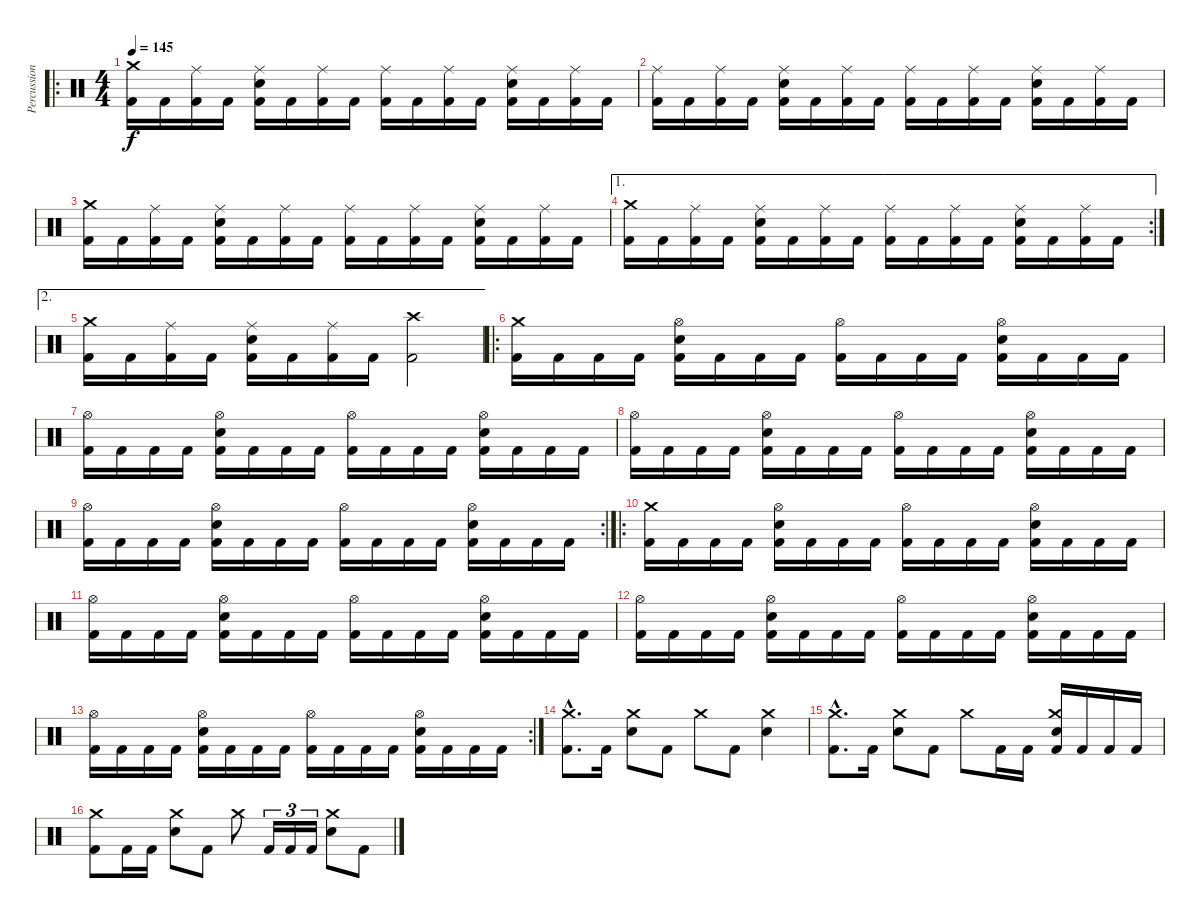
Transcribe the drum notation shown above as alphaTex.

\track ("Percussion" "Percussion") {instrument percussion}
\staff {score}
\articulation defaults
\ro
\ts (4 4)
\tempo 145
\clef neutral
\ks c
("Kick (hit) 2" "Crash medium (hit)").16{dy f} "Kick (hit) 2".16 ("Kick (hit) 2" "Ride (middle)").16 "Kick (hit) 2".16 ("Kick (hit) 2" "Electric Snare (hit)" "Ride (middle)").16 "Kick (hit) 2".16 ("Kick (hit) 2" "Ride (middle)").16 "Kick (hit) 2".16 ("Kick (hit) 2" "Ride (middle)").16 "Kick (hit) 2".16 ("Kick (hit) 2" "Ride (middle)").16 "Kick (hit) 2".16 ("Kick (hit) 2" "Electric Snare (hit)" "Ride (middle)").16 "Kick (hit) 2".16 ("Kick (hit) 2" "Ride (middle)").16 "Kick (hit) 2".16 |
("Kick (hit) 2" "Ride (middle)").16 "Kick (hit) 2".16 ("Kick (hit) 2" "Ride (middle)").16 "Kick (hit) 2".16 ("Kick (hit) 2" "Electric Snare (hit)" "Ride (middle)").16 "Kick (hit) 2".16 ("Kick (hit) 2" "Ride (middle)").16 "Kick (hit) 2".16 ("Kick (hit) 2" "Ride (middle)").16 "Kick (hit) 2".16 ("Kick (hit) 2" "Ride (middle)").16 "Kick (hit) 2".16 ("Kick (hit) 2" "Electric Snare (hit)" "Ride (middle)").16 "Kick (hit) 2".16 ("Kick (hit) 2" "Ride (middle)").16 "Kick (hit) 2".16 |
("Kick (hit) 2" "Crash medium (hit)").16 "Kick (hit) 2".16 ("Kick (hit) 2" "Ride (middle)").16 "Kick (hit) 2".16 ("Kick (hit) 2" "Electric Snare (hit)" "Ride (middle)").16 "Kick (hit) 2".16 ("Kick (hit) 2" "Ride (middle)").16 "Kick (hit) 2".16 ("Kick (hit) 2" "Ride (middle)").16 "Kick (hit) 2".16 ("Kick (hit) 2" "Ride (middle)").16 "Kick (hit) 2".16 ("Kick (hit) 2" "Electric Snare (hit)" "Ride (middle)").16 "Kick (hit) 2".16 ("Kick (hit) 2" "Ride (middle)").16 "Kick (hit) 2".16 |
\ae 1
\rc 2
("Kick (hit) 2" "Crash medium (hit)").16 "Kick (hit) 2".16 ("Kick (hit) 2" "Ride (middle)").16 "Kick (hit) 2".16 ("Kick (hit) 2" "Electric Snare (hit)" "Ride (middle)").16 "Kick (hit) 2".16 ("Kick (hit) 2" "Ride (middle)").16 "Kick (hit) 2".16 ("Kick (hit) 2" "Ride (middle)").16 "Kick (hit) 2".16 ("Kick (hit) 2" "Ride (middle)").16 "Kick (hit) 2".16 ("Kick (hit) 2" "Electric Snare (hit)" "Ride (middle)").16 "Kick (hit) 2".16 ("Kick (hit) 2" "Ride (middle)").16 "Kick (hit) 2".16 |
\ae 2
("Kick (hit) 2" "Crash medium (hit)").16 "Kick (hit) 2".16 ("Kick (hit) 2" "Ride (middle)").16 "Kick (hit) 2".16 ("Kick (hit) 2" "Electric Snare (hit)" "Ride (middle)").16 "Kick (hit) 2".16 ("Kick (hit) 2" "Ride (middle)").16 "Kick (hit) 2".16 ("Kick (hit) 2" "Crash high (hit)").2 |
\ro
("Kick (hit) 2" "Crash medium (hit)").16 "Kick (hit) 2".16 "Kick (hit) 2".16 "Kick (hit) 2".16 ("Kick (hit) 2" "Electric Snare (hit)" "Hi-Hat (open)").16 "Kick (hit) 2".16 "Kick (hit) 2".16 "Kick (hit) 2".16 ("Kick (hit) 2" "Hi-Hat (open)").16 "Kick (hit) 2".16 "Kick (hit) 2".16 "Kick (hit) 2".16 ("Kick (hit) 2" "Electric Snare (hit)" "Hi-Hat (open)").16 "Kick (hit) 2".16 "Kick (hit) 2".16 "Kick (hit) 2".16 |
("Kick (hit) 2" "Hi-Hat (open)").16 "Kick (hit) 2".16 "Kick (hit) 2".16 "Kick (hit) 2".16 ("Kick (hit) 2" "Electric Snare (hit)" "Hi-Hat (open)").16 "Kick (hit) 2".16 "Kick (hit) 2".16 "Kick (hit) 2".16 ("Kick (hit) 2" "Hi-Hat (open)").16 "Kick (hit) 2".16 "Kick (hit) 2".16 "Kick (hit) 2".16 ("Kick (hit) 2" "Electric Snare (hit)" "Hi-Hat (open)").16 "Kick (hit) 2".16 "Kick (hit) 2".16 "Kick (hit) 2".16 |
("Kick (hit) 2" "Hi-Hat (open)").16 "Kick (hit) 2".16 "Kick (hit) 2".16 "Kick (hit) 2".16 ("Kick (hit) 2" "Electric Snare (hit)" "Hi-Hat (open)").16 "Kick (hit) 2".16 "Kick (hit) 2".16 "Kick (hit) 2".16 ("Kick (hit) 2" "Hi-Hat (open)").16 "Kick (hit) 2".16 "Kick (hit) 2".16 "Kick (hit) 2".16 ("Kick (hit) 2" "Electric Snare (hit)" "Hi-Hat (open)").16 "Kick (hit) 2".16 "Kick (hit) 2".16 "Kick (hit) 2".16 |
\rc 2
("Kick (hit) 2" "Hi-Hat (open)").16 "Kick (hit) 2".16 "Kick (hit) 2".16 "Kick (hit) 2".16 ("Kick (hit) 2" "Electric Snare (hit)" "Hi-Hat (open)").16 "Kick (hit) 2".16 "Kick (hit) 2".16 "Kick (hit) 2".16 ("Kick (hit) 2" "Hi-Hat (open)").16 "Kick (hit) 2".16 "Kick (hit) 2".16 "Kick (hit) 2".16 ("Kick (hit) 2" "Electric Snare (hit)" "Hi-Hat (open)").16 "Kick (hit) 2".16 "Kick (hit) 2".16 "Kick (hit) 2".16 |
\ro
("Kick (hit) 2" "Crash medium (hit)").16 "Kick (hit) 2".16 "Kick (hit) 2".16 "Kick (hit) 2".16 ("Kick (hit) 2" "Electric Snare (hit)" "Hi-Hat (open)").16 "Kick (hit) 2".16 "Kick (hit) 2".16 "Kick (hit) 2".16 ("Kick (hit) 2" "Hi-Hat (open)").16 "Kick (hit) 2".16 "Kick (hit) 2".16 "Kick (hit) 2".16 ("Kick (hit) 2" "Electric Snare (hit)" "Hi-Hat (open)").16 "Kick (hit) 2".16 "Kick (hit) 2".16 "Kick (hit) 2".16 |
("Kick (hit) 2" "Hi-Hat (open)").16 "Kick (hit) 2".16 "Kick (hit) 2".16 "Kick (hit) 2".16 ("Kick (hit) 2" "Electric Snare (hit)" "Hi-Hat (open)").16 "Kick (hit) 2".16 "Kick (hit) 2".16 "Kick (hit) 2".16 ("Kick (hit) 2" "Hi-Hat (open)").16 "Kick (hit) 2".16 "Kick (hit) 2".16 "Kick (hit) 2".16 ("Kick (hit) 2" "Electric Snare (hit)" "Hi-Hat (open)").16 "Kick (hit) 2".16 "Kick (hit) 2".16 "Kick (hit) 2".16 |
("Kick (hit) 2" "Hi-Hat (open)").16 "Kick (hit) 2".16 "Kick (hit) 2".16 "Kick (hit) 2".16 ("Kick (hit) 2" "Electric Snare (hit)" "Hi-Hat (open)").16 "Kick (hit) 2".16 "Kick (hit) 2".16 "Kick (hit) 2".16 ("Kick (hit) 2" "Hi-Hat (open)").16 "Kick (hit) 2".16 "Kick (hit) 2".16 "Kick (hit) 2".16 ("Kick (hit) 2" "Electric Snare (hit)" "Hi-Hat (open)").16 "Kick (hit) 2".16 "Kick (hit) 2".16 "Kick (hit) 2".16 |
\rc 2
("Kick (hit) 2" "Hi-Hat (open)").16 "Kick (hit) 2".16 "Kick (hit) 2".16 "Kick (hit) 2".16 ("Kick (hit) 2" "Electric Snare (hit)" "Hi-Hat (open)").16 "Kick (hit) 2".16 "Kick (hit) 2".16 "Kick (hit) 2".16 ("Kick (hit) 2" "Hi-Hat (open)").16 "Kick (hit) 2".16 "Kick (hit) 2".16 "Kick (hit) 2".16 ("Kick (hit) 2" "Electric Snare (hit)" "Hi-Hat (open)").16 "Kick (hit) 2".16 "Kick (hit) 2".16 "Kick (hit) 2".16 |
("Kick (hit) 2"{hac} "Crash medium (hit)"{hac}).8{d} "Kick (hit) 2".16 ("Electric Snare (hit)" "Crash medium (hit)").8 "Kick (hit) 2".8 "Crash medium (hit)".8 "Kick (hit) 2".8 ("Electric Snare (hit)" "Crash medium (hit)").4 |
("Kick (hit) 2"{hac} "Crash medium (hit)"{hac}).8{d} "Kick (hit) 2".16 ("Electric Snare (hit)" "Crash medium (hit)").8 "Kick (hit) 2".8 "Crash medium (hit)".8 "Kick (hit) 2".16 "Kick (hit) 2".16 ("Kick (hit) 2" "Electric Snare (hit)" "Crash medium (hit)").16 "Kick (hit) 2".16 "Kick (hit) 2".16 "Kick (hit) 2".16 |
("Kick (hit) 2" "Crash medium (hit)").8 "Kick (hit) 2".16 "Kick (hit) 2".16 ("Electric Snare (hit)" "Crash medium (hit)").8 "Kick (hit) 2".8 "Crash medium (hit)".8 "Kick (hit) 2".16{tu (3 2)} "Kick (hit) 2".16{tu (3 2)} "Kick (hit) 2".16{tu (3 2)} ("Electric Snare (hit)" "Crash medium (hit)").8 "Kick (hit) 2".8
